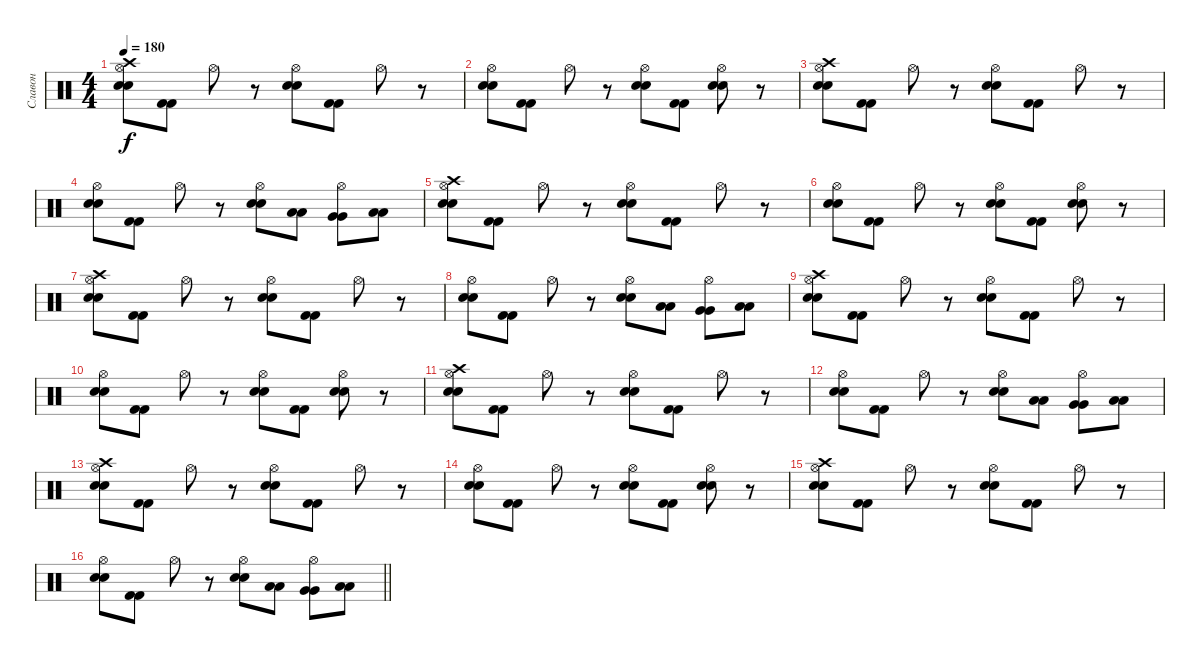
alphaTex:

\track ("Славон" "Славон") {instrument percussion}
\staff {score}
\articulation defaults
\ts (4 4)
\tempo 180
\clef neutral
\ks c
("Hi-Hat (open)" "Electric Snare (hit)" "Electric Snare (hit)" "Crash high (hit)").8{dy f} ("Kick (hit) 2" "Kick (hit) 2").8 "Hi-Hat (open)".8 r.8 ("Hi-Hat (open)" "Electric Snare (hit)" "Electric Snare (hit)").8 ("Kick (hit) 2" "Kick (hit) 2").8 "Hi-Hat (open)".8 r.8 |
("Hi-Hat (open)" "Electric Snare (hit)" "Electric Snare (hit)").8 ("Kick (hit) 2" "Kick (hit) 2").8 "Hi-Hat (open)".8 r.8 ("Hi-Hat (open)" "Electric Snare (hit)" "Electric Snare (hit)").8 ("Kick (hit) 2" "Kick (hit) 2").8 ("Hi-Hat (open)" "Electric Snare (hit)" "Electric Snare (hit)").8 r.8 |
("Hi-Hat (open)" "Electric Snare (hit)" "Electric Snare (hit)" "Crash high (hit)").8 ("Kick (hit) 2" "Kick (hit) 2").8 "Hi-Hat (open)".8 r.8 ("Hi-Hat (open)" "Electric Snare (hit)" "Electric Snare (hit)").8 ("Kick (hit) 2" "Kick (hit) 2").8 "Hi-Hat (open)".8 r.8 |
("Hi-Hat (open)" "Electric Snare (hit)" "Electric Snare (hit)").8 ("Kick (hit) 2" "Kick (hit) 2").8 "Hi-Hat (open)".8 r.8 ("Hi-Hat (open)" "Electric Snare (hit)" "Electric Snare (hit)").8 ("Low Tom (hit)" "Low Tom (hit)").8 ("Hi-Hat (open)" "Very Low Tom (hit)" "Very Low Tom (hit)").8 ("Low Floor Tom (hit)" "Low Floor Tom (hit)").8 |
("Hi-Hat (open)" "Electric Snare (hit)" "Electric Snare (hit)" "Crash high (hit)").8 ("Kick (hit) 2" "Kick (hit) 2").8 "Hi-Hat (open)".8 r.8 ("Hi-Hat (open)" "Electric Snare (hit)" "Electric Snare (hit)").8 ("Kick (hit) 2" "Kick (hit) 2").8 "Hi-Hat (open)".8 r.8 |
("Hi-Hat (open)" "Electric Snare (hit)" "Electric Snare (hit)").8 ("Kick (hit) 2" "Kick (hit) 2").8 "Hi-Hat (open)".8 r.8 ("Hi-Hat (open)" "Electric Snare (hit)" "Electric Snare (hit)").8 ("Kick (hit) 2" "Kick (hit) 2").8 ("Hi-Hat (open)" "Electric Snare (hit)" "Electric Snare (hit)").8 r.8 |
("Hi-Hat (open)" "Electric Snare (hit)" "Electric Snare (hit)" "Crash high (hit)").8 ("Kick (hit) 2" "Kick (hit) 2").8 "Hi-Hat (open)".8 r.8 ("Hi-Hat (open)" "Electric Snare (hit)" "Electric Snare (hit)").8 ("Kick (hit) 2" "Kick (hit) 2").8 "Hi-Hat (open)".8 r.8 |
("Hi-Hat (open)" "Electric Snare (hit)" "Electric Snare (hit)").8 ("Kick (hit) 2" "Kick (hit) 2").8 "Hi-Hat (open)".8 r.8 ("Hi-Hat (open)" "Electric Snare (hit)" "Electric Snare (hit)").8 ("Low Tom (hit)" "Low Tom (hit)").8 ("Hi-Hat (open)" "Very Low Tom (hit)" "Very Low Tom (hit)").8 ("Low Floor Tom (hit)" "Low Floor Tom (hit)").8 |
("Hi-Hat (open)" "Electric Snare (hit)" "Electric Snare (hit)" "Crash high (hit)").8 ("Kick (hit) 2" "Kick (hit) 2").8 "Hi-Hat (open)".8 r.8 ("Hi-Hat (open)" "Electric Snare (hit)" "Electric Snare (hit)").8 ("Kick (hit) 2" "Kick (hit) 2").8 "Hi-Hat (open)".8 r.8 |
("Hi-Hat (open)" "Electric Snare (hit)" "Electric Snare (hit)").8 ("Kick (hit) 2" "Kick (hit) 2").8 "Hi-Hat (open)".8 r.8 ("Hi-Hat (open)" "Electric Snare (hit)" "Electric Snare (hit)").8 ("Kick (hit) 2" "Kick (hit) 2").8 ("Hi-Hat (open)" "Electric Snare (hit)" "Electric Snare (hit)").8 r.8 |
("Hi-Hat (open)" "Electric Snare (hit)" "Electric Snare (hit)" "Crash high (hit)").8 ("Kick (hit) 2" "Kick (hit) 2").8 "Hi-Hat (open)".8 r.8 ("Hi-Hat (open)" "Electric Snare (hit)" "Electric Snare (hit)").8 ("Kick (hit) 2" "Kick (hit) 2").8 "Hi-Hat (open)".8 r.8 |
("Hi-Hat (open)" "Electric Snare (hit)" "Electric Snare (hit)").8 ("Kick (hit) 2" "Kick (hit) 2").8 "Hi-Hat (open)".8 r.8 ("Hi-Hat (open)" "Electric Snare (hit)" "Electric Snare (hit)").8 ("Low Tom (hit)" "Low Tom (hit)").8 ("Hi-Hat (open)" "Very Low Tom (hit)" "Very Low Tom (hit)").8 ("Low Floor Tom (hit)" "Low Floor Tom (hit)").8 |
("Hi-Hat (open)" "Electric Snare (hit)" "Electric Snare (hit)" "Crash high (hit)").8 ("Kick (hit) 2" "Kick (hit) 2").8 "Hi-Hat (open)".8 r.8 ("Hi-Hat (open)" "Electric Snare (hit)" "Electric Snare (hit)").8 ("Kick (hit) 2" "Kick (hit) 2").8 "Hi-Hat (open)".8 r.8 |
("Hi-Hat (open)" "Electric Snare (hit)" "Electric Snare (hit)").8 ("Kick (hit) 2" "Kick (hit) 2").8 "Hi-Hat (open)".8 r.8 ("Hi-Hat (open)" "Electric Snare (hit)" "Electric Snare (hit)").8 ("Kick (hit) 2" "Kick (hit) 2").8 ("Hi-Hat (open)" "Electric Snare (hit)" "Electric Snare (hit)").8 r.8 |
("Hi-Hat (open)" "Electric Snare (hit)" "Electric Snare (hit)" "Crash high (hit)").8 ("Kick (hit) 2" "Kick (hit) 2").8 "Hi-Hat (open)".8 r.8 ("Hi-Hat (open)" "Electric Snare (hit)" "Electric Snare (hit)").8 ("Kick (hit) 2" "Kick (hit) 2").8 "Hi-Hat (open)".8 r.8 |
\barLineRight lightlight
("Hi-Hat (open)" "Electric Snare (hit)" "Electric Snare (hit)").8 ("Kick (hit) 2" "Kick (hit) 2").8 "Hi-Hat (open)".8 r.8 ("Hi-Hat (open)" "Electric Snare (hit)" "Electric Snare (hit)").8 ("Low Tom (hit)" "Low Tom (hit)").8 ("Hi-Hat (open)" "Very Low Tom (hit)" "Very Low Tom (hit)").8 ("Low Floor Tom (hit)" "Low Floor Tom (hit)").8
